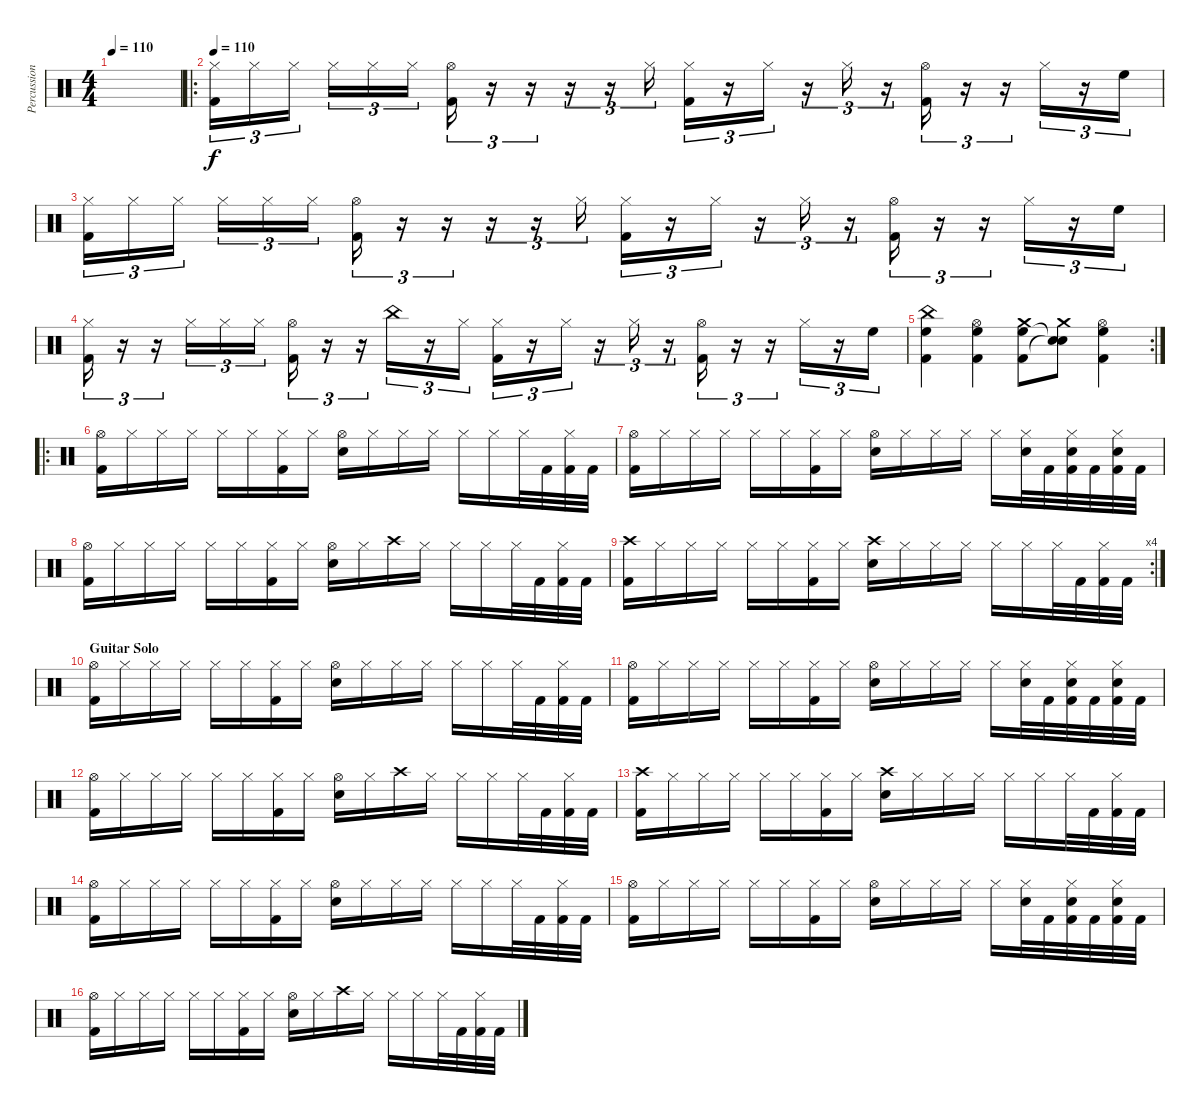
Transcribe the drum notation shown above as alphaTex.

\track ("Percussion" "Percussion") {instrument percussion}
\staff {score}
\articulation defaults
\ts (4 4)
\tempo 110
\clef neutral
\ks c
|
\ro
\tempo 110
("Hi-Hat (closed)" "Kick (hit) 2").16{tu (3 2)} "Hi-Hat (closed)".16{tu (3 2)} "Hi-Hat (closed)".16{tu (3 2)} "Hi-Hat (closed)".16{tu (3 2)} "Hi-Hat (closed)".16{tu (3 2)} "Hi-Hat (closed)".16{tu (3 2)} ("Hi-Hat (open)" "Kick (hit) 2").16{tu (3 2)} r.16{tu (3 2)} r.16{tu (3 2)} r.16{tu (3 2)} r.16{tu (3 2)} "Hi-Hat (closed)".16{tu (3 2)} ("Hi-Hat (closed)" "Kick (hit) 2").16{tu (3 2)} r.16{tu (3 2)} "Hi-Hat (closed)".16{tu (3 2)} r.16{tu (3 2)} "Hi-Hat (closed)".16{tu (3 2)} r.16{tu (3 2)} ("Hi-Hat (open)" "Kick (hit) 2").16{tu (3 2)} r.16{tu (3 2)} r.16{tu (3 2)} "Hi-Hat (closed)".16{tu (3 2)} r.16{tu (3 2)} "High Floor Tom (hit)".16{tu (3 2)} |
("Hi-Hat (closed)" "Kick (hit) 2").16{tu (3 2)} "Hi-Hat (closed)".16{tu (3 2)} "Hi-Hat (closed)".16{tu (3 2)} "Hi-Hat (closed)".16{tu (3 2)} "Hi-Hat (closed)".16{tu (3 2)} "Hi-Hat (closed)".16{tu (3 2)} ("Hi-Hat (open)" "Kick (hit) 2").16{tu (3 2)} r.16{tu (3 2)} r.16{tu (3 2)} r.16{tu (3 2)} r.16{tu (3 2)} "Hi-Hat (closed)".16{tu (3 2)} ("Hi-Hat (closed)" "Kick (hit) 2").16{tu (3 2)} r.16{tu (3 2)} "Hi-Hat (closed)".16{tu (3 2)} r.16{tu (3 2)} "Hi-Hat (closed)".16{tu (3 2)} r.16{tu (3 2)} ("Hi-Hat (open)" "Kick (hit) 2").16{tu (3 2)} r.16{tu (3 2)} r.16{tu (3 2)} "Hi-Hat (closed)".16{tu (3 2)} r.16{tu (3 2)} "High Floor Tom (hit)".16{tu (3 2)} |
("Hi-Hat (closed)" "Kick (hit) 2").16{tu (3 2)} r.16{tu (3 2)} r.16{tu (3 2)} "Hi-Hat (closed)".16{tu (3 2)} "Hi-Hat (closed)".16{tu (3 2)} "Hi-Hat (closed)".16{tu (3 2)} ("Hi-Hat (open)" "Kick (hit) 2").16{tu (3 2)} r.16{tu (3 2)} r.16{tu (3 2)} "China (hit)".16{tu (3 2)} r.16{tu (3 2)} "Hi-Hat (closed)".16{tu (3 2)} ("Hi-Hat (closed)" "Kick (hit) 2").16{tu (3 2)} r.16{tu (3 2)} "Hi-Hat (closed)".16{tu (3 2)} r.16{tu (3 2)} "Hi-Hat (closed)".16{tu (3 2)} r.16{tu (3 2)} ("Hi-Hat (open)" "Kick (hit) 2").16{tu (3 2)} r.16{tu (3 2)} r.16{tu (3 2)} "Hi-Hat (closed)".16{tu (3 2)} r.16{tu (3 2)} "High Floor Tom (hit)".16{tu (3 2)} |
\rc 2
("China (hit)" "High Floor Tom (hit)" "Kick (hit) 2").4 ("Hi-Hat (open)" "High Floor Tom (hit)" "Kick (hit) 2").4 ("Crash medium (hit)" "High Floor Tom (hit)" "Kick (hit) 2").8 ("Crash medium (hit)" "Snare (hit)"{t} "Snare (hit)"{t}).8 ("Hi-Hat (open)" "High Floor Tom (hit)" "Kick (hit) 2").4 |
\ro
("Hi-Hat (open)" "Kick (hit) 2").16 "Hi-Hat (closed)".16 "Hi-Hat (closed)".16 "Hi-Hat (closed)".16 "Hi-Hat (closed)".16 "Hi-Hat (closed)".16 ("Hi-Hat (closed)" "Kick (hit) 2").16 "Hi-Hat (closed)".16 ("Hi-Hat (open)" "Electric Snare (hit)").16 "Hi-Hat (closed)".16 "Hi-Hat (closed)".16 "Hi-Hat (closed)".16 "Hi-Hat (closed)".16 "Hi-Hat (closed)".16 "Hi-Hat (closed)".32 "Kick (hit) 2".32 ("Hi-Hat (closed)" "Kick (hit) 2").32 "Kick (hit) 2".32 |
("Hi-Hat (open)" "Kick (hit) 2").16 "Hi-Hat (closed)".16 "Hi-Hat (closed)".16 "Hi-Hat (closed)".16 "Hi-Hat (closed)".16 "Hi-Hat (closed)".16 ("Hi-Hat (closed)" "Kick (hit) 2").16 "Hi-Hat (closed)".16 ("Hi-Hat (open)" "Electric Snare (hit)").16 "Hi-Hat (closed)".16 "Hi-Hat (closed)".16 "Hi-Hat (closed)".16 "Hi-Hat (closed)".16 ("Hi-Hat (closed)" "Electric Snare (hit)").32 "Kick (hit) 2".32 ("Hi-Hat (closed)" "Electric Snare (hit)" "Kick (hit) 2").32 "Kick (hit) 2".32 ("Hi-Hat (closed)" "Electric Snare (hit)" "Kick (hit) 2").32 "Kick (hit) 2".32 |
("Hi-Hat (open)" "Kick (hit) 2").16 "Hi-Hat (closed)".16 "Hi-Hat (closed)".16 "Hi-Hat (closed)".16 "Hi-Hat (closed)".16 "Hi-Hat (closed)".16 ("Hi-Hat (closed)" "Kick (hit) 2").16 "Hi-Hat (closed)".16 ("Hi-Hat (open)" "Electric Snare (hit)").16 "Hi-Hat (closed)".16 "Crash high (hit)".16 "Hi-Hat (closed)".16 "Hi-Hat (closed)".16 "Hi-Hat (closed)".16 "Hi-Hat (closed)".32 "Kick (hit) 2".32 ("Hi-Hat (closed)" "Kick (hit) 2").32 "Kick (hit) 2".32 |
\rc 4
("Crash high (hit)" "Kick (hit) 2").16 "Hi-Hat (closed)".16 "Hi-Hat (closed)".16 "Hi-Hat (closed)".16 "Hi-Hat (closed)".16 "Hi-Hat (closed)".16 ("Hi-Hat (closed)" "Kick (hit) 2").16 "Hi-Hat (closed)".16 ("Crash high (hit)" "Electric Snare (hit)").16 "Hi-Hat (closed)".16 "Hi-Hat (closed)".16 "Hi-Hat (closed)".16 "Hi-Hat (closed)".16 "Hi-Hat (closed)".16 "Hi-Hat (closed)".32 "Kick (hit) 2".32 ("Hi-Hat (closed)" "Kick (hit) 2").32 "Kick (hit) 2".32 |
\section ("" "Guitar Solo")
("Hi-Hat (open)" "Kick (hit) 2").16 "Hi-Hat (closed)".16 "Hi-Hat (closed)".16 "Hi-Hat (closed)".16 "Hi-Hat (closed)".16 "Hi-Hat (closed)".16 ("Hi-Hat (closed)" "Kick (hit) 2").16 "Hi-Hat (closed)".16 ("Hi-Hat (open)" "Electric Snare (hit)").16 "Hi-Hat (closed)".16 "Hi-Hat (closed)".16 "Hi-Hat (closed)".16 "Hi-Hat (closed)".16 "Hi-Hat (closed)".16 "Hi-Hat (closed)".32 "Kick (hit) 2".32 ("Hi-Hat (closed)" "Kick (hit) 2").32 "Kick (hit) 2".32 |
("Hi-Hat (open)" "Kick (hit) 2").16 "Hi-Hat (closed)".16 "Hi-Hat (closed)".16 "Hi-Hat (closed)".16 "Hi-Hat (closed)".16 "Hi-Hat (closed)".16 ("Hi-Hat (closed)" "Kick (hit) 2").16 "Hi-Hat (closed)".16 ("Hi-Hat (open)" "Electric Snare (hit)").16 "Hi-Hat (closed)".16 "Hi-Hat (closed)".16 "Hi-Hat (closed)".16 "Hi-Hat (closed)".16 ("Hi-Hat (closed)" "Electric Snare (hit)").32 "Kick (hit) 2".32 ("Hi-Hat (closed)" "Electric Snare (hit)" "Kick (hit) 2").32 "Kick (hit) 2".32 ("Hi-Hat (closed)" "Electric Snare (hit)" "Kick (hit) 2").32 "Kick (hit) 2".32 |
("Hi-Hat (open)" "Kick (hit) 2").16 "Hi-Hat (closed)".16 "Hi-Hat (closed)".16 "Hi-Hat (closed)".16 "Hi-Hat (closed)".16 "Hi-Hat (closed)".16 ("Hi-Hat (closed)" "Kick (hit) 2").16 "Hi-Hat (closed)".16 ("Hi-Hat (open)" "Electric Snare (hit)").16 "Hi-Hat (closed)".16 "Crash high (hit)".16 "Hi-Hat (closed)".16 "Hi-Hat (closed)".16 "Hi-Hat (closed)".16 "Hi-Hat (closed)".32 "Kick (hit) 2".32 ("Hi-Hat (closed)" "Kick (hit) 2").32 "Kick (hit) 2".32 |
("Crash high (hit)" "Kick (hit) 2").16 "Hi-Hat (closed)".16 "Hi-Hat (closed)".16 "Hi-Hat (closed)".16 "Hi-Hat (closed)".16 "Hi-Hat (closed)".16 ("Hi-Hat (closed)" "Kick (hit) 2").16 "Hi-Hat (closed)".16 ("Crash high (hit)" "Electric Snare (hit)").16 "Hi-Hat (closed)".16 "Hi-Hat (closed)".16 "Hi-Hat (closed)".16 "Hi-Hat (closed)".16 "Hi-Hat (closed)".16 "Hi-Hat (closed)".32 "Kick (hit) 2".32 ("Hi-Hat (closed)" "Kick (hit) 2").32 "Kick (hit) 2".32 |
("Hi-Hat (open)" "Kick (hit) 2").16 "Hi-Hat (closed)".16 "Hi-Hat (closed)".16 "Hi-Hat (closed)".16 "Hi-Hat (closed)".16 "Hi-Hat (closed)".16 ("Hi-Hat (closed)" "Kick (hit) 2").16 "Hi-Hat (closed)".16 ("Hi-Hat (open)" "Electric Snare (hit)").16 "Hi-Hat (closed)".16 "Hi-Hat (closed)".16 "Hi-Hat (closed)".16 "Hi-Hat (closed)".16 "Hi-Hat (closed)".16 "Hi-Hat (closed)".32 "Kick (hit) 2".32 ("Hi-Hat (closed)" "Kick (hit) 2").32 "Kick (hit) 2".32 |
("Hi-Hat (open)" "Kick (hit) 2").16 "Hi-Hat (closed)".16 "Hi-Hat (closed)".16 "Hi-Hat (closed)".16 "Hi-Hat (closed)".16 "Hi-Hat (closed)".16 ("Hi-Hat (closed)" "Kick (hit) 2").16 "Hi-Hat (closed)".16 ("Hi-Hat (open)" "Electric Snare (hit)").16 "Hi-Hat (closed)".16 "Hi-Hat (closed)".16 "Hi-Hat (closed)".16 "Hi-Hat (closed)".16 ("Hi-Hat (closed)" "Electric Snare (hit)").32 "Kick (hit) 2".32 ("Hi-Hat (closed)" "Electric Snare (hit)" "Kick (hit) 2").32 "Kick (hit) 2".32 ("Hi-Hat (closed)" "Electric Snare (hit)" "Kick (hit) 2").32 "Kick (hit) 2".32 |
("Hi-Hat (open)" "Kick (hit) 2").16 "Hi-Hat (closed)".16 "Hi-Hat (closed)".16 "Hi-Hat (closed)".16 "Hi-Hat (closed)".16 "Hi-Hat (closed)".16 ("Hi-Hat (closed)" "Kick (hit) 2").16 "Hi-Hat (closed)".16 ("Hi-Hat (open)" "Electric Snare (hit)").16 "Hi-Hat (closed)".16 "Crash high (hit)".16 "Hi-Hat (closed)".16 "Hi-Hat (closed)".16 "Hi-Hat (closed)".16 "Hi-Hat (closed)".32 "Kick (hit) 2".32 ("Hi-Hat (closed)" "Kick (hit) 2").32 "Kick (hit) 2".32
